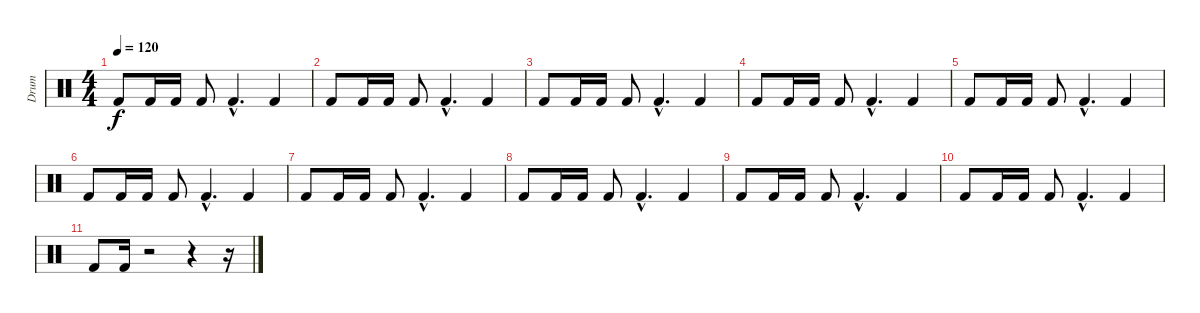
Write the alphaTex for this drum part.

\track ("Drum" "Drum") {instrument percussion}
\staff {score}
\articulation defaults
\ts (4 4)
\tempo 120
\clef neutral
\ks c "Kick (hit) 2".8{dy f} "Kick (hit) 2".16 "Kick (hit) 2".16 "Kick (hit) 2".8 "Kick (hit) 2"{hac}.4{d} "Kick (hit) 2".4
|
"Kick (hit) 2".8 "Kick (hit) 2".16 "Kick (hit) 2".16 "Kick (hit) 2".8 "Kick (hit) 2"{hac}.4{d} "Kick (hit) 2".4 |
"Kick (hit) 2".8 "Kick (hit) 2".16 "Kick (hit) 2".16 "Kick (hit) 2".8 "Kick (hit) 2"{hac}.4{d} "Kick (hit) 2".4 |
"Kick (hit) 2".8 "Kick (hit) 2".16 "Kick (hit) 2".16 "Kick (hit) 2".8 "Kick (hit) 2"{hac}.4{d} "Kick (hit) 2".4 |
"Kick (hit) 2".8 "Kick (hit) 2".16 "Kick (hit) 2".16 "Kick (hit) 2".8 "Kick (hit) 2"{hac}.4{d} "Kick (hit) 2".4 |
"Kick (hit) 2".8 "Kick (hit) 2".16 "Kick (hit) 2".16 "Kick (hit) 2".8 "Kick (hit) 2"{hac}.4{d} "Kick (hit) 2".4 |
"Kick (hit) 2".8{volume 16} "Kick (hit) 2".16{volume 15} "Kick (hit) 2".16{volume 14} "Kick (hit) 2".8{volume 14} "Kick (hit) 2"{hac}.4{d volume 13} "Kick (hit) 2".4{volume 13} |
"Kick (hit) 2".8{volume 13} "Kick (hit) 2".16{volume 12} "Kick (hit) 2".16{volume 12} "Kick (hit) 2".8{volume 11} "Kick (hit) 2"{hac}.4{d volume 11} "Kick (hit) 2".4{volume 10} |
"Kick (hit) 2".8{volume 10} "Kick (hit) 2".16{volume 10} "Kick (hit) 2".16{volume 9} "Kick (hit) 2".8{volume 8} "Kick (hit) 2"{hac}.4{d volume 7} "Kick (hit) 2".4{volume 7} |
"Kick (hit) 2".8{volume 6} "Kick (hit) 2".16{volume 6} "Kick (hit) 2".16{volume 4} "Kick (hit) 2".8{volume 4} "Kick (hit) 2"{hac}.4{d volume 2} "Kick (hit) 2".4{volume 2} |
"Kick (hit) 2".8{volume 0} "Kick (hit) 2".16{volume 0} r.2 r.4 r.16
